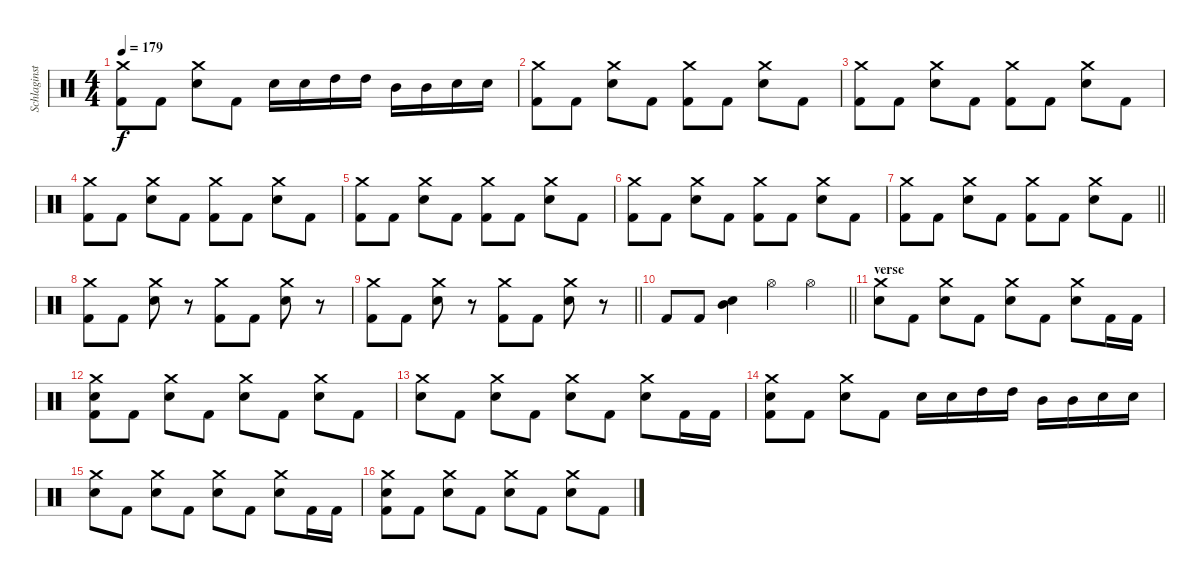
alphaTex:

\track ("Schlaginstrumente - Auswahl" "Schlaginst") {instrument percussion}
\staff {score}
\articulation defaults
\ts (4 4)
\tempo 179
\clef neutral
\ks c
("Crash medium (hit)" "Kick (hit) 2").8{dy f} "Kick (hit) 2".8 ("Crash medium (hit)" "Electric Snare (hit)").8 "Kick (hit) 2".8 "Electric Snare (hit)".16 "Electric Snare (hit)".16 "High Tom (hit)".16 "High Tom (hit)".16 "Mid Tom (hit)".16 "Mid Tom (hit)".16 "Electric Snare (hit)".16 "Electric Snare (hit)".16 |
("Crash medium (hit)" "Kick (hit) 2").8 "Kick (hit) 2".8 ("Crash medium (hit)" "Electric Snare (hit)").8 "Kick (hit) 2".8 ("Crash medium (hit)" "Kick (hit) 2").8 "Kick (hit) 2".8 ("Crash medium (hit)" "Electric Snare (hit)").8 "Kick (hit) 2".8 |
("Crash medium (hit)" "Kick (hit) 2").8 "Kick (hit) 2".8 ("Crash medium (hit)" "Electric Snare (hit)").8 "Kick (hit) 2".8 ("Crash medium (hit)" "Kick (hit) 2").8 "Kick (hit) 2".8 ("Crash medium (hit)" "Electric Snare (hit)").8 "Kick (hit) 2".8 |
("Crash medium (hit)" "Kick (hit) 2").8 "Kick (hit) 2".8 ("Crash medium (hit)" "Electric Snare (hit)").8 "Kick (hit) 2".8 ("Crash medium (hit)" "Kick (hit) 2").8 "Kick (hit) 2".8 ("Crash medium (hit)" "Electric Snare (hit)").8 "Kick (hit) 2".8 |
("Crash medium (hit)" "Kick (hit) 2").8 "Kick (hit) 2".8 ("Crash medium (hit)" "Electric Snare (hit)").8 "Kick (hit) 2".8 ("Crash medium (hit)" "Kick (hit) 2").8 "Kick (hit) 2".8 ("Crash medium (hit)" "Electric Snare (hit)").8 "Kick (hit) 2".8 |
("Crash medium (hit)" "Kick (hit) 2").8 "Kick (hit) 2".8 ("Crash medium (hit)" "Electric Snare (hit)").8 "Kick (hit) 2".8 ("Crash medium (hit)" "Kick (hit) 2").8 "Kick (hit) 2".8 ("Crash medium (hit)" "Electric Snare (hit)").8 "Kick (hit) 2".8 |
\barLineRight lightlight
("Crash medium (hit)" "Kick (hit) 2").8 "Kick (hit) 2".8 ("Crash medium (hit)" "Electric Snare (hit)").8 "Kick (hit) 2".8 ("Crash medium (hit)" "Kick (hit) 2").8 "Kick (hit) 2".8 ("Crash medium (hit)" "Electric Snare (hit)").8 "Kick (hit) 2".8 |
\section ("" "")
("Kick (hit) 2" "Crash medium (hit)").8 "Kick (hit) 2".8 ("Crash medium (hit)" "Electric Snare (hit)").8 r.8 ("Kick (hit) 2" "Crash medium (hit)").8 "Kick (hit) 2".8 ("Crash medium (hit)" "Electric Snare (hit)").8 r.8 |
\barLineRight lightlight
("Kick (hit) 2" "Crash medium (hit)").8 "Kick (hit) 2".8 ("Crash medium (hit)" "Electric Snare (hit)").8 r.8 ("Kick (hit) 2" "Crash medium (hit)").8 "Kick (hit) 2".8 ("Crash medium (hit)" "Electric Snare (hit)").8 r.8 |
\barLineRight lightlight "Kick (hit) 2".8 "Kick (hit) 2".8
("Mid Tom (hit)" "Electric Snare (hit)").4 "Hi-Hat (open)".4 "Hi-Hat (open)".4 |
\section ("" "verse")
("Crash medium (hit)" "Electric Snare (hit)").8 "Kick (hit) 2".8 ("Crash medium (hit)" "Electric Snare (hit)").8 "Kick (hit) 2".8 ("Crash medium (hit)" "Electric Snare (hit)").8 "Kick (hit) 2".8 ("Crash medium (hit)" "Electric Snare (hit)").8 "Kick (hit) 2".16 "Kick (hit) 2".16 |
("Crash medium (hit)" "Electric Snare (hit)" "Kick (hit) 2").8 "Kick (hit) 2".8 ("Crash medium (hit)" "Electric Snare (hit)").8 "Kick (hit) 2".8 ("Crash medium (hit)" "Electric Snare (hit)").8 "Kick (hit) 2".8 ("Crash medium (hit)" "Electric Snare (hit)").8 "Kick (hit) 2".8 |
("Crash medium (hit)" "Electric Snare (hit)").8 "Kick (hit) 2".8 ("Crash medium (hit)" "Electric Snare (hit)").8 "Kick (hit) 2".8 ("Crash medium (hit)" "Electric Snare (hit)").8 "Kick (hit) 2".8 ("Crash medium (hit)" "Electric Snare (hit)").8 "Kick (hit) 2".16 "Kick (hit) 2".16 |
("Crash medium (hit)" "Electric Snare (hit)" "Kick (hit) 2").8 "Kick (hit) 2".8 ("Crash medium (hit)" "Electric Snare (hit)").8 "Kick (hit) 2".8 "Electric Snare (hit)".16 "Electric Snare (hit)".16 "High Tom (hit)".16 "High Tom (hit)".16 "Mid Tom (hit)".16 "Mid Tom (hit)".16 "Electric Snare (hit)".16 "Electric Snare (hit)".16 |
("Crash medium (hit)" "Electric Snare (hit)").8 "Kick (hit) 2".8 ("Crash medium (hit)" "Electric Snare (hit)").8 "Kick (hit) 2".8 ("Crash medium (hit)" "Electric Snare (hit)").8 "Kick (hit) 2".8 ("Crash medium (hit)" "Electric Snare (hit)").8 "Kick (hit) 2".16 "Kick (hit) 2".16 |
("Crash medium (hit)" "Electric Snare (hit)" "Kick (hit) 2").8 "Kick (hit) 2".8 ("Crash medium (hit)" "Electric Snare (hit)").8 "Kick (hit) 2".8 ("Crash medium (hit)" "Electric Snare (hit)").8 "Kick (hit) 2".8 ("Crash medium (hit)" "Electric Snare (hit)").8 "Kick (hit) 2".8
